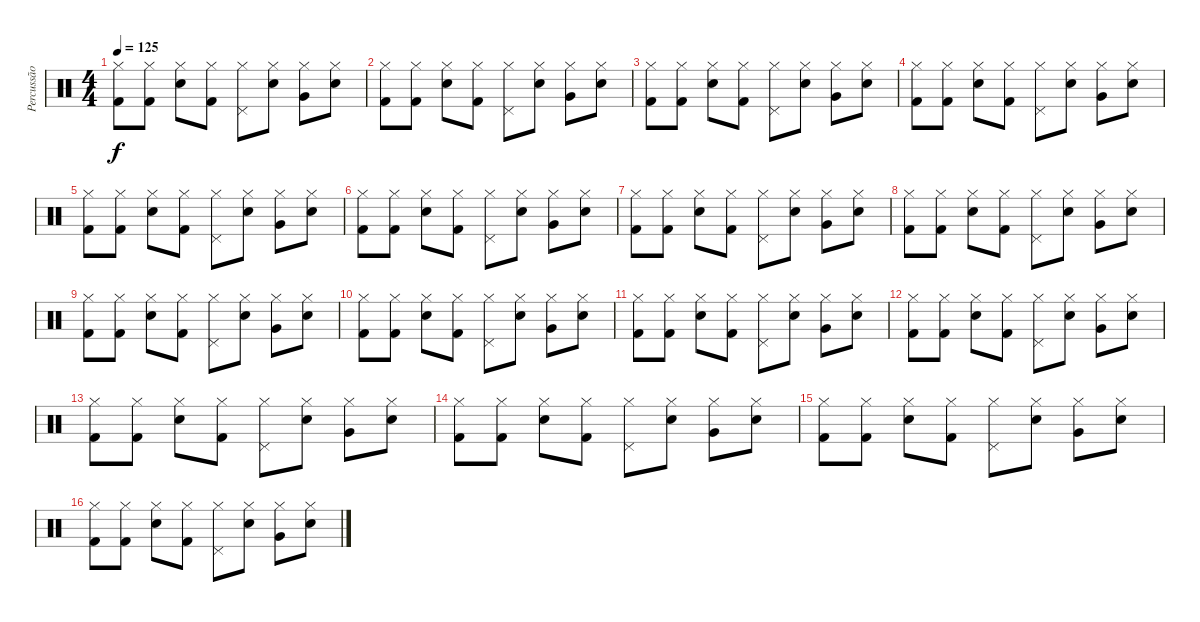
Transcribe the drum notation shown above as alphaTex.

\track ("Percussão" "Percussão") {instrument percussion}
\staff {score}
\articulation defaults
\ts (4 4)
\tempo 125
\clef neutral
\ks c
("Hi-Hat (closed)" "Kick (hit) 2").8{dy f} ("Hi-Hat (closed)" "Kick (hit) 2").8 ("Hi-Hat (closed)" "Snare (hit) 2").8 ("Hi-Hat (closed)" "Kick (hit) 2").8 ("Hi-Hat (closed)" "Pedal Hi-Hat (hit)").8 ("Hi-Hat (closed)" "Snare (hit) 2").8 ("Hi-Hat (closed)" "Very Low Tom (hit)").8 ("Hi-Hat (closed)" "Snare (hit) 2").8 |
("Hi-Hat (closed)" "Kick (hit) 2").8 ("Hi-Hat (closed)" "Kick (hit) 2").8 ("Hi-Hat (closed)" "Snare (hit) 2").8 ("Hi-Hat (closed)" "Kick (hit) 2").8 ("Hi-Hat (closed)" "Pedal Hi-Hat (hit)").8 ("Hi-Hat (closed)" "Snare (hit) 2").8 ("Hi-Hat (closed)" "Very Low Tom (hit)").8 ("Hi-Hat (closed)" "Snare (hit) 2").8 |
("Hi-Hat (closed)" "Kick (hit) 2").8 ("Hi-Hat (closed)" "Kick (hit) 2").8 ("Hi-Hat (closed)" "Snare (hit) 2").8 ("Hi-Hat (closed)" "Kick (hit) 2").8 ("Hi-Hat (closed)" "Pedal Hi-Hat (hit)").8 ("Hi-Hat (closed)" "Snare (hit) 2").8 ("Hi-Hat (closed)" "Very Low Tom (hit)").8 ("Hi-Hat (closed)" "Snare (hit) 2").8 |
("Hi-Hat (closed)" "Kick (hit) 2").8 ("Hi-Hat (closed)" "Kick (hit) 2").8 ("Hi-Hat (closed)" "Snare (hit) 2").8 ("Hi-Hat (closed)" "Kick (hit) 2").8 ("Hi-Hat (closed)" "Pedal Hi-Hat (hit)").8 ("Hi-Hat (closed)" "Snare (hit) 2").8 ("Hi-Hat (closed)" "Very Low Tom (hit)").8 ("Hi-Hat (closed)" "Snare (hit) 2").8 |
("Hi-Hat (closed)" "Kick (hit) 2").8 ("Hi-Hat (closed)" "Kick (hit) 2").8 ("Hi-Hat (closed)" "Snare (hit) 2").8 ("Hi-Hat (closed)" "Kick (hit) 2").8 ("Hi-Hat (closed)" "Pedal Hi-Hat (hit)").8 ("Hi-Hat (closed)" "Snare (hit) 2").8 ("Hi-Hat (closed)" "Very Low Tom (hit)").8 ("Hi-Hat (closed)" "Snare (hit) 2").8 |
("Hi-Hat (closed)" "Kick (hit) 2").8 ("Hi-Hat (closed)" "Kick (hit) 2").8 ("Hi-Hat (closed)" "Snare (hit) 2").8 ("Hi-Hat (closed)" "Kick (hit) 2").8 ("Hi-Hat (closed)" "Pedal Hi-Hat (hit)").8 ("Hi-Hat (closed)" "Snare (hit) 2").8 ("Hi-Hat (closed)" "Very Low Tom (hit)").8 ("Hi-Hat (closed)" "Snare (hit) 2").8 |
("Hi-Hat (closed)" "Kick (hit) 2").8 ("Hi-Hat (closed)" "Kick (hit) 2").8 ("Hi-Hat (closed)" "Snare (hit) 2").8 ("Hi-Hat (closed)" "Kick (hit) 2").8 ("Hi-Hat (closed)" "Pedal Hi-Hat (hit)").8 ("Hi-Hat (closed)" "Snare (hit) 2").8 ("Hi-Hat (closed)" "Very Low Tom (hit)").8 ("Hi-Hat (closed)" "Snare (hit) 2").8 |
("Hi-Hat (closed)" "Kick (hit) 2").8 ("Hi-Hat (closed)" "Kick (hit) 2").8 ("Hi-Hat (closed)" "Snare (hit) 2").8 ("Hi-Hat (closed)" "Kick (hit) 2").8 ("Hi-Hat (closed)" "Pedal Hi-Hat (hit)").8 ("Hi-Hat (closed)" "Snare (hit) 2").8 ("Hi-Hat (closed)" "Very Low Tom (hit)").8 ("Hi-Hat (closed)" "Snare (hit) 2").8 |
("Hi-Hat (closed)" "Kick (hit) 2").8 ("Hi-Hat (closed)" "Kick (hit) 2").8 ("Hi-Hat (closed)" "Snare (hit) 2").8 ("Hi-Hat (closed)" "Kick (hit) 2").8 ("Hi-Hat (closed)" "Pedal Hi-Hat (hit)").8 ("Hi-Hat (closed)" "Snare (hit) 2").8 ("Hi-Hat (closed)" "Very Low Tom (hit)").8 ("Hi-Hat (closed)" "Snare (hit) 2").8 |
("Hi-Hat (closed)" "Kick (hit) 2").8 ("Hi-Hat (closed)" "Kick (hit) 2").8 ("Hi-Hat (closed)" "Snare (hit) 2").8 ("Hi-Hat (closed)" "Kick (hit) 2").8 ("Hi-Hat (closed)" "Pedal Hi-Hat (hit)").8 ("Hi-Hat (closed)" "Snare (hit) 2").8 ("Hi-Hat (closed)" "Very Low Tom (hit)").8 ("Hi-Hat (closed)" "Snare (hit) 2").8 |
("Hi-Hat (closed)" "Kick (hit) 2").8 ("Hi-Hat (closed)" "Kick (hit) 2").8 ("Hi-Hat (closed)" "Snare (hit) 2").8 ("Hi-Hat (closed)" "Kick (hit) 2").8 ("Hi-Hat (closed)" "Pedal Hi-Hat (hit)").8 ("Hi-Hat (closed)" "Snare (hit) 2").8 ("Hi-Hat (closed)" "Very Low Tom (hit)").8 ("Hi-Hat (closed)" "Snare (hit) 2").8 |
("Hi-Hat (closed)" "Kick (hit) 2").8 ("Hi-Hat (closed)" "Kick (hit) 2").8 ("Hi-Hat (closed)" "Snare (hit) 2").8 ("Hi-Hat (closed)" "Kick (hit) 2").8 ("Hi-Hat (closed)" "Pedal Hi-Hat (hit)").8 ("Hi-Hat (closed)" "Snare (hit) 2").8 ("Hi-Hat (closed)" "Very Low Tom (hit)").8 ("Hi-Hat (closed)" "Snare (hit) 2").8 |
("Hi-Hat (closed)" "Kick (hit) 2").8 ("Hi-Hat (closed)" "Kick (hit) 2").8 ("Hi-Hat (closed)" "Snare (hit) 2").8 ("Hi-Hat (closed)" "Kick (hit) 2").8 ("Hi-Hat (closed)" "Pedal Hi-Hat (hit)").8 ("Hi-Hat (closed)" "Snare (hit) 2").8 ("Hi-Hat (closed)" "Very Low Tom (hit)").8 ("Hi-Hat (closed)" "Snare (hit) 2").8 |
("Hi-Hat (closed)" "Kick (hit) 2").8 ("Hi-Hat (closed)" "Kick (hit) 2").8 ("Hi-Hat (closed)" "Snare (hit) 2").8 ("Hi-Hat (closed)" "Kick (hit) 2").8 ("Hi-Hat (closed)" "Pedal Hi-Hat (hit)").8 ("Hi-Hat (closed)" "Snare (hit) 2").8 ("Hi-Hat (closed)" "Very Low Tom (hit)").8 ("Hi-Hat (closed)" "Snare (hit) 2").8 |
("Hi-Hat (closed)" "Kick (hit) 2").8 ("Hi-Hat (closed)" "Kick (hit) 2").8 ("Hi-Hat (closed)" "Snare (hit) 2").8 ("Hi-Hat (closed)" "Kick (hit) 2").8 ("Hi-Hat (closed)" "Pedal Hi-Hat (hit)").8 ("Hi-Hat (closed)" "Snare (hit) 2").8 ("Hi-Hat (closed)" "Very Low Tom (hit)").8 ("Hi-Hat (closed)" "Snare (hit) 2").8 |
("Hi-Hat (closed)" "Kick (hit) 2").8 ("Hi-Hat (closed)" "Kick (hit) 2").8 ("Hi-Hat (closed)" "Snare (hit) 2").8 ("Hi-Hat (closed)" "Kick (hit) 2").8 ("Hi-Hat (closed)" "Pedal Hi-Hat (hit)").8 ("Hi-Hat (closed)" "Snare (hit) 2").8 ("Hi-Hat (closed)" "Very Low Tom (hit)").8 ("Hi-Hat (closed)" "Snare (hit) 2").8
